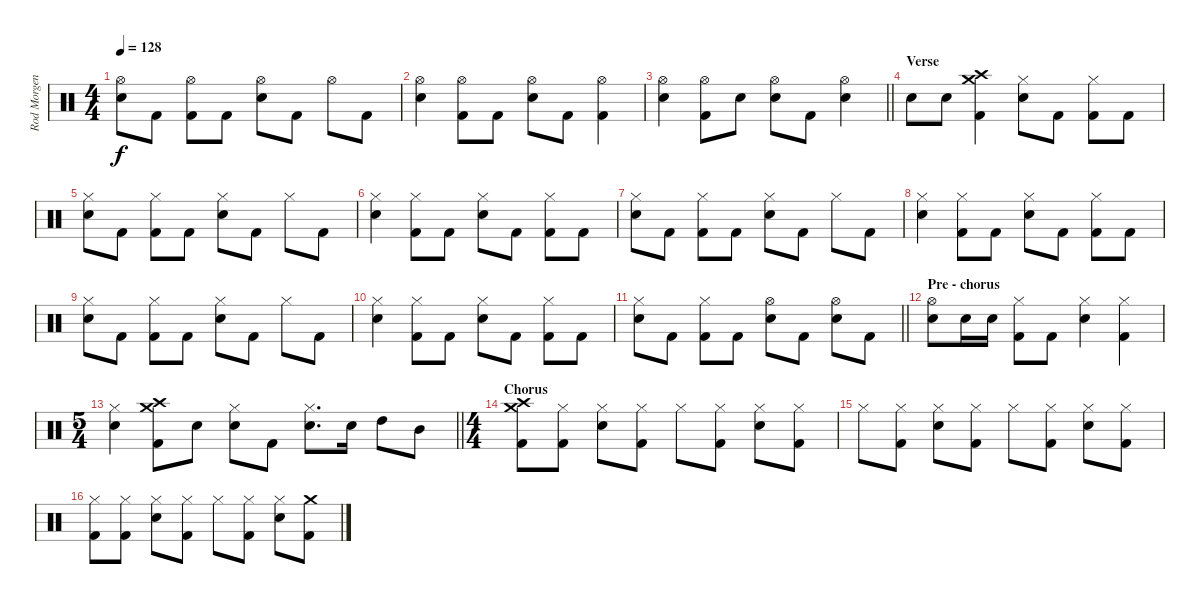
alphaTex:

\track ("Rod Morgenstein" "Rod Morgen") {instrument percussion}
\staff {score}
\articulation defaults
\ts (4 4)
\tempo 128
\clef neutral
\ks c
("Hi-Hat (open)" "Snare (hit) 2").8{dy f} "Kick (hit) 2".8 ("Hi-Hat (open)" "Kick (hit) 2").8 "Kick (hit) 2".8 ("Hi-Hat (open)" "Snare (hit) 2").8 "Kick (hit) 2".8 "Hi-Hat (open)".8 "Kick (hit) 2".8 |
("Hi-Hat (open)" "Snare (hit) 2").4 ("Hi-Hat (open)" "Kick (hit) 2").8 "Kick (hit) 2".8 ("Hi-Hat (open)" "Snare (hit) 2").8 "Kick (hit) 2".8 ("Hi-Hat (open)" "Kick (hit) 2").4 |
\barLineRight lightlight
("Hi-Hat (open)" "Snare (hit) 2").4 ("Hi-Hat (open)" "Kick (hit) 2").8 "Snare (hit) 2".8 ("Hi-Hat (open)" "Snare (hit) 2").8 "Kick (hit) 2".8 ("Hi-Hat (open)" "Snare (hit) 2").4 |
\section ("" "Verse")
"Snare (hit) 2".8 "Snare (hit) 2".8 ("Crash medium (hit)" "Crash high (hit)" "Kick (hit) 2").4 ("Hi-Hat (closed)" "Snare (hit) 2").8 "Kick (hit) 2".8 ("Hi-Hat (closed)" "Kick (hit) 2").8 "Kick (hit) 2".8 |
("Hi-Hat (closed)" "Snare (hit) 2").8 "Kick (hit) 2".8 ("Hi-Hat (closed)" "Kick (hit) 2").8 "Kick (hit) 2".8 ("Hi-Hat (closed)" "Snare (hit) 2").8 "Kick (hit) 2".8 "Hi-Hat (closed)".8 "Kick (hit) 2".8 |
("Hi-Hat (closed)" "Snare (hit) 2").4 ("Hi-Hat (closed)" "Kick (hit) 2").8 "Kick (hit) 2".8 ("Hi-Hat (closed)" "Snare (hit) 2").8 "Kick (hit) 2".8 ("Hi-Hat (closed)" "Kick (hit) 2").8 "Kick (hit) 2".8 |
("Hi-Hat (closed)" "Snare (hit) 2").8 "Kick (hit) 2".8 ("Hi-Hat (closed)" "Kick (hit) 2").8 "Kick (hit) 2".8 ("Hi-Hat (closed)" "Snare (hit) 2").8 "Kick (hit) 2".8 "Hi-Hat (closed)".8 "Kick (hit) 2".8 |
("Hi-Hat (closed)" "Snare (hit) 2").4 ("Hi-Hat (closed)" "Kick (hit) 2").8 "Kick (hit) 2".8 ("Hi-Hat (closed)" "Snare (hit) 2").8 "Kick (hit) 2".8 ("Hi-Hat (closed)" "Kick (hit) 2").8 "Kick (hit) 2".8 |
("Hi-Hat (closed)" "Snare (hit) 2").8 "Kick (hit) 2".8 ("Hi-Hat (closed)" "Kick (hit) 2").8 "Kick (hit) 2".8 ("Hi-Hat (closed)" "Snare (hit) 2").8 "Kick (hit) 2".8 "Hi-Hat (closed)".8 "Kick (hit) 2".8 |
("Hi-Hat (closed)" "Snare (hit) 2").4 ("Hi-Hat (closed)" "Kick (hit) 2").8 "Kick (hit) 2".8 ("Hi-Hat (closed)" "Snare (hit) 2").8 "Kick (hit) 2".8 ("Hi-Hat (closed)" "Kick (hit) 2").8 "Kick (hit) 2".8 |
\barLineRight lightlight
("Hi-Hat (closed)" "Snare (hit) 2").8 "Kick (hit) 2".8 ("Hi-Hat (closed)" "Kick (hit) 2").8 "Kick (hit) 2".8 ("Hi-Hat (open)" "Snare (hit) 2").8 "Kick (hit) 2".8 ("Hi-Hat (open)" "Snare (hit) 2").8 "Kick (hit) 2".8 |
\section ("" "Pre - chorus")
("Hi-Hat (open)" "Snare (hit) 2").8 "Snare (hit) 2".16 "Snare (hit) 2".16 ("Hi-Hat (closed)" "Kick (hit) 2").8 "Kick (hit) 2".8 ("Hi-Hat (closed)" "Snare (hit) 2").4 ("Hi-Hat (closed)" "Kick (hit) 2").4 |
\ts (5 4)
\barLineRight lightlight
("Hi-Hat (closed)" "Snare (hit) 2").4 ("Crash medium (hit)" "Crash high (hit)" "Kick (hit) 2").8 "Snare (hit) 2".8 ("Hi-Hat (closed)" "Snare (hit) 2").8 "Kick (hit) 2".8 ("Hi-Hat (closed)" "Snare (hit) 2").8{d} "Snare (hit) 2".16 "High Tom (hit)".8 "Mid Tom (hit)".8 |
\ts (4 4)
\section ("" "Chorus")
("Crash medium (hit)" "Crash high (hit)" "Kick (hit) 2").8 ("Hi-Hat (closed)" "Kick (hit) 2").8 ("Hi-Hat (closed)" "Snare (hit) 2").8 ("Hi-Hat (closed)" "Kick (hit) 2").8 "Hi-Hat (closed)".8 ("Hi-Hat (closed)" "Kick (hit) 2").8 ("Hi-Hat (closed)" "Snare (hit) 2").8 ("Hi-Hat (closed)" "Kick (hit) 2").8 |
"Hi-Hat (closed)".8 ("Hi-Hat (closed)" "Kick (hit) 2").8 ("Hi-Hat (closed)" "Snare (hit) 2").8 ("Hi-Hat (closed)" "Kick (hit) 2").8 "Hi-Hat (closed)".8 ("Hi-Hat (closed)" "Kick (hit) 2").8 ("Hi-Hat (closed)" "Snare (hit) 2").8 ("Hi-Hat (closed)" "Kick (hit) 2").8 |
("Hi-Hat (closed)" "Kick (hit) 2").8 ("Hi-Hat (closed)" "Kick (hit) 2").8 ("Hi-Hat (closed)" "Snare (hit) 2").8 ("Hi-Hat (closed)" "Kick (hit) 2").8 "Hi-Hat (closed)".8 ("Hi-Hat (closed)" "Kick (hit) 2").8 ("Hi-Hat (closed)" "Snare (hit) 2").8 ("Crash medium (hit)" "Kick (hit) 2").8
